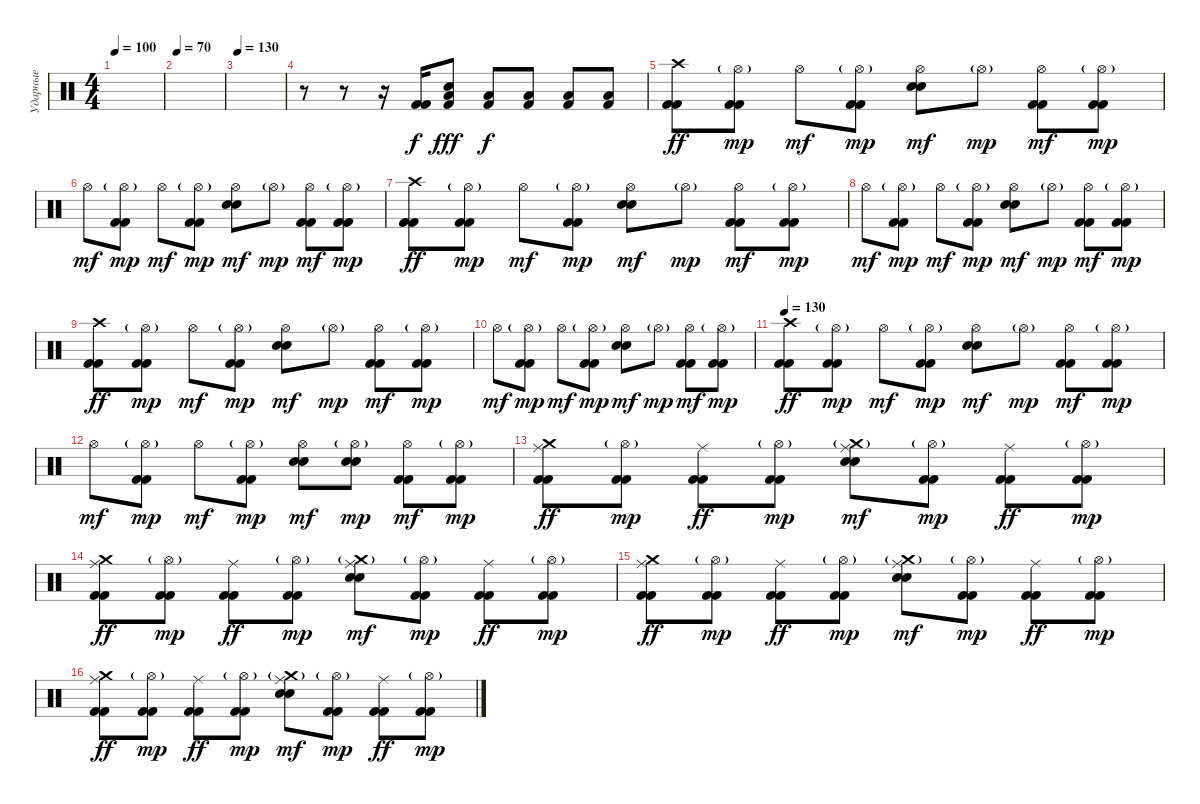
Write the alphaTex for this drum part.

\track ("Ударные" "Ударные") {instrument percussion}
\staff {score}
\articulation defaults
\ts (4 4)
\tempo 100
\clef neutral
\ks c
|
\tempo 70
|
\tempo 130
|
r.8 r.8 r.16 ("Kick (hit) 2" "Kick (hit) 2").16 ("Electric Snare (hit)" "Low Floor Tom (hit)" "Kick (hit) 2").8{dy fff} ("Low Floor Tom (hit)" "Kick (hit) 2").8{dy f} ("Low Floor Tom (hit)" "Kick (hit) 2").8 ("Low Floor Tom (hit)" "Kick (hit) 2").8 ("Low Floor Tom (hit)" "Kick (hit) 2").8 |
("Kick (hit) 2" "Kick (hit) 2" "Crash high (hit)").8{dy ff} ("Kick (hit) 2" "Kick (hit) 2" "Hi-Hat (open)"{g}).8{dy mp} "Hi-Hat (open)".8{dy mf} ("Kick (hit) 2" "Kick (hit) 2" "Hi-Hat (open)"{g}).8{dy mp} ("Electric Snare (hit)" "Snare (hit) 2" "Hi-Hat (open)").8{dy mf} "Hi-Hat (open)"{g}.8{dy mp} ("Kick (hit) 2" "Kick (hit) 2" "Hi-Hat (open)").8{dy mf} ("Kick (hit) 2" "Kick (hit) 2" "Hi-Hat (open)"{g}).8{dy mp} |
"Hi-Hat (open)".8{dy mf} ("Kick (hit) 2" "Kick (hit) 2" "Hi-Hat (open)"{g}).8{dy mp} "Hi-Hat (open)".8{dy mf} ("Kick (hit) 2" "Kick (hit) 2" "Hi-Hat (open)"{g}).8{dy mp} ("Electric Snare (hit)" "Snare (hit) 2" "Hi-Hat (open)").8{dy mf} "Hi-Hat (open)"{g}.8{dy mp} ("Kick (hit) 2" "Kick (hit) 2" "Hi-Hat (open)").8{dy mf} ("Kick (hit) 2" "Kick (hit) 2" "Hi-Hat (open)"{g}).8{dy mp} |
("Kick (hit) 2" "Kick (hit) 2" "Crash high (hit)").8{dy ff} ("Kick (hit) 2" "Kick (hit) 2" "Hi-Hat (open)"{g}).8{dy mp} "Hi-Hat (open)".8{dy mf} ("Kick (hit) 2" "Kick (hit) 2" "Hi-Hat (open)"{g}).8{dy mp} ("Electric Snare (hit)" "Snare (hit) 2" "Hi-Hat (open)").8{dy mf} "Hi-Hat (open)"{g}.8{dy mp} ("Kick (hit) 2" "Kick (hit) 2" "Hi-Hat (open)").8{dy mf} ("Kick (hit) 2" "Kick (hit) 2" "Hi-Hat (open)"{g}).8{dy mp} |
"Hi-Hat (open)".8{dy mf} ("Kick (hit) 2" "Kick (hit) 2" "Hi-Hat (open)"{g}).8{dy mp} "Hi-Hat (open)".8{dy mf} ("Kick (hit) 2" "Kick (hit) 2" "Hi-Hat (open)"{g}).8{dy mp} ("Electric Snare (hit)" "Snare (hit) 2" "Hi-Hat (open)").8{dy mf} "Hi-Hat (open)"{g}.8{dy mp} ("Kick (hit) 2" "Kick (hit) 2" "Hi-Hat (open)").8{dy mf} ("Kick (hit) 2" "Kick (hit) 2" "Hi-Hat (open)"{g}).8{dy mp} |
("Kick (hit) 2" "Kick (hit) 2" "Crash high (hit)").8{dy ff} ("Kick (hit) 2" "Kick (hit) 2" "Hi-Hat (open)"{g}).8{dy mp} "Hi-Hat (open)".8{dy mf} ("Kick (hit) 2" "Kick (hit) 2" "Hi-Hat (open)"{g}).8{dy mp} ("Electric Snare (hit)" "Snare (hit) 2" "Hi-Hat (open)").8{dy mf} "Hi-Hat (open)"{g}.8{dy mp} ("Kick (hit) 2" "Kick (hit) 2" "Hi-Hat (open)").8{dy mf} ("Kick (hit) 2" "Kick (hit) 2" "Hi-Hat (open)"{g}).8{dy mp} |
"Hi-Hat (open)".8{dy mf} ("Kick (hit) 2" "Kick (hit) 2" "Hi-Hat (open)"{g}).8{dy mp} "Hi-Hat (open)".8{dy mf} ("Kick (hit) 2" "Kick (hit) 2" "Hi-Hat (open)"{g}).8{dy mp} ("Electric Snare (hit)" "Snare (hit) 2" "Hi-Hat (open)").8{dy mf} "Hi-Hat (open)"{g}.8{dy mp} ("Kick (hit) 2" "Kick (hit) 2" "Hi-Hat (open)").8{dy mf} ("Kick (hit) 2" "Kick (hit) 2" "Hi-Hat (open)"{g}).8{dy mp} |
\tempo 130
("Kick (hit) 2" "Kick (hit) 2" "Crash high (hit)").8{dy ff} ("Kick (hit) 2" "Kick (hit) 2" "Hi-Hat (open)"{g}).8{dy mp} "Hi-Hat (open)".8{dy mf} ("Kick (hit) 2" "Kick (hit) 2" "Hi-Hat (open)"{g}).8{dy mp} ("Electric Snare (hit)" "Snare (hit) 2" "Hi-Hat (open)").8{dy mf} "Hi-Hat (open)"{g}.8{dy mp} ("Kick (hit) 2" "Kick (hit) 2" "Hi-Hat (open)").8{dy mf} ("Kick (hit) 2" "Kick (hit) 2" "Hi-Hat (open)"{g}).8{dy mp} |
"Hi-Hat (open)".8{dy mf} ("Kick (hit) 2" "Kick (hit) 2" "Hi-Hat (open)"{g}).8{dy mp} "Hi-Hat (open)".8{dy mf} ("Kick (hit) 2" "Kick (hit) 2" "Hi-Hat (open)"{g}).8{dy mp} ("Electric Snare (hit)" "Snare (hit) 2" "Hi-Hat (open)").8{dy mf} ("Electric Snare (hit)" "Snare (hit) 2" "Hi-Hat (open)"{g}).8{dy mp} ("Kick (hit) 2" "Kick (hit) 2" "Hi-Hat (open)").8{dy mf} ("Kick (hit) 2" "Kick (hit) 2" "Hi-Hat (open)"{g}).8{dy mp} |
("Kick (hit) 2" "Kick (hit) 2" "Ride (middle)" "Crash medium (hit)").8{dy ff} ("Kick (hit) 2" "Kick (hit) 2" "Hi-Hat (open)"{g}).8{dy mp} ("Kick (hit) 2" "Kick (hit) 2" "Ride (middle)").8{dy ff} ("Kick (hit) 2" "Kick (hit) 2" "Hi-Hat (open)"{g}).8{dy mp} ("Electric Snare (hit)" "Snare (hit) 2" "Ride (middle)" "Crash medium (hit)"{g}).8{dy mf} ("Kick (hit) 2" "Kick (hit) 2" "Hi-Hat (open)"{g}).8{dy mp} ("Kick (hit) 2" "Kick (hit) 2" "Ride (middle)").8{dy ff} ("Kick (hit) 2" "Kick (hit) 2" "Hi-Hat (open)"{g}).8{dy mp} |
("Kick (hit) 2" "Kick (hit) 2" "Ride (middle)" "Crash medium (hit)").8{dy ff} ("Kick (hit) 2" "Kick (hit) 2" "Hi-Hat (open)"{g}).8{dy mp} ("Kick (hit) 2" "Kick (hit) 2" "Ride (middle)").8{dy ff} ("Kick (hit) 2" "Kick (hit) 2" "Hi-Hat (open)"{g}).8{dy mp} ("Electric Snare (hit)" "Snare (hit) 2" "Ride (middle)" "Crash medium (hit)"{g}).8{dy mf} ("Kick (hit) 2" "Kick (hit) 2" "Hi-Hat (open)"{g}).8{dy mp} ("Kick (hit) 2" "Kick (hit) 2" "Ride (middle)").8{dy ff} ("Kick (hit) 2" "Kick (hit) 2" "Hi-Hat (open)"{g}).8{dy mp} |
("Kick (hit) 2" "Kick (hit) 2" "Ride (middle)" "Crash medium (hit)").8{dy ff} ("Kick (hit) 2" "Kick (hit) 2" "Hi-Hat (open)"{g}).8{dy mp} ("Kick (hit) 2" "Kick (hit) 2" "Ride (middle)").8{dy ff} ("Kick (hit) 2" "Kick (hit) 2" "Hi-Hat (open)"{g}).8{dy mp} ("Electric Snare (hit)" "Snare (hit) 2" "Ride (middle)" "Crash medium (hit)"{g}).8{dy mf} ("Kick (hit) 2" "Kick (hit) 2" "Hi-Hat (open)"{g}).8{dy mp} ("Kick (hit) 2" "Kick (hit) 2" "Ride (middle)").8{dy ff} ("Kick (hit) 2" "Kick (hit) 2" "Hi-Hat (open)"{g}).8{dy mp} |
("Kick (hit) 2" "Kick (hit) 2" "Ride (middle)" "Crash medium (hit)").8{dy ff} ("Kick (hit) 2" "Kick (hit) 2" "Hi-Hat (open)"{g}).8{dy mp} ("Kick (hit) 2" "Kick (hit) 2" "Ride (middle)").8{dy ff} ("Kick (hit) 2" "Kick (hit) 2" "Hi-Hat (open)"{g}).8{dy mp} ("Electric Snare (hit)" "Snare (hit) 2" "Ride (middle)" "Crash medium (hit)"{g}).8{dy mf} ("Kick (hit) 2" "Kick (hit) 2" "Hi-Hat (open)"{g}).8{dy mp} ("Kick (hit) 2" "Kick (hit) 2" "Ride (middle)").8{dy ff} ("Kick (hit) 2" "Kick (hit) 2" "Hi-Hat (open)"{g}).8{dy mp}
